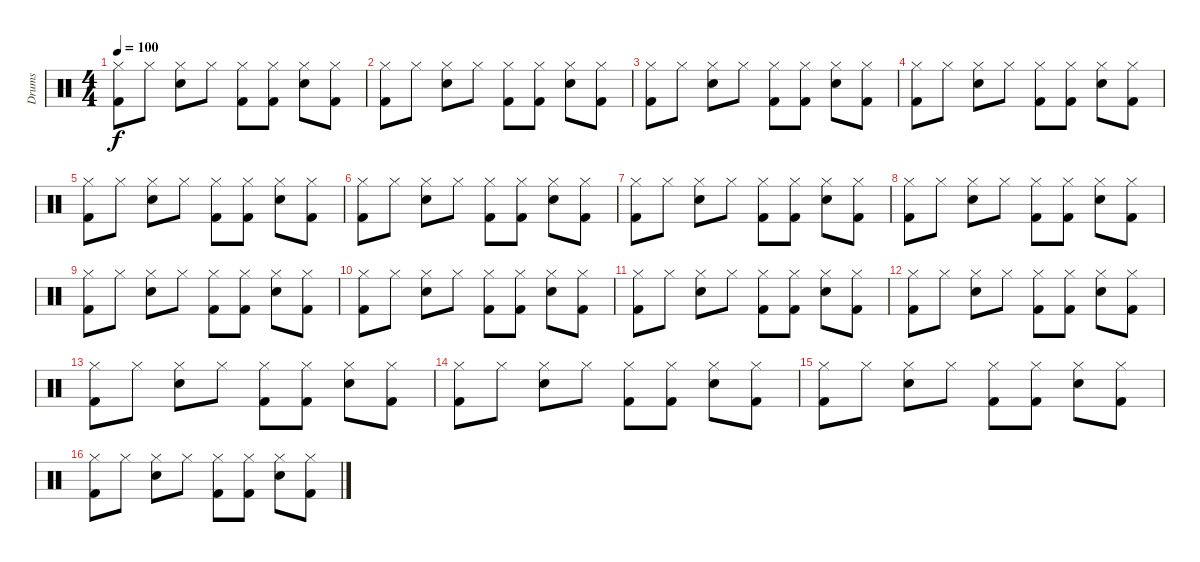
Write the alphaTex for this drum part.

\track ("Drums" "Drums") {instrument percussion}
\staff {score}
\articulation defaults
\ts (4 4)
\tempo 100
\clef neutral
\ks c
("Hi-Hat (closed)" "Kick (hit) 2").8{dy f} "Hi-Hat (closed)".8 ("Hi-Hat (closed)" "Snare (hit) 2").8 "Hi-Hat (closed)".8 ("Hi-Hat (closed)" "Kick (hit) 2").8 ("Hi-Hat (closed)" "Kick (hit) 2").8 ("Hi-Hat (closed)" "Snare (hit) 2").8 ("Hi-Hat (closed)" "Kick (hit) 2").8 |
("Hi-Hat (closed)" "Kick (hit) 2").8 "Hi-Hat (closed)".8 ("Hi-Hat (closed)" "Snare (hit) 2").8 "Hi-Hat (closed)".8 ("Hi-Hat (closed)" "Kick (hit) 2").8 ("Hi-Hat (closed)" "Kick (hit) 2").8 ("Hi-Hat (closed)" "Snare (hit) 2").8 ("Hi-Hat (closed)" "Kick (hit) 2").8 |
("Hi-Hat (closed)" "Kick (hit) 2").8 "Hi-Hat (closed)".8 ("Hi-Hat (closed)" "Snare (hit) 2").8 "Hi-Hat (closed)".8 ("Hi-Hat (closed)" "Kick (hit) 2").8 ("Hi-Hat (closed)" "Kick (hit) 2").8 ("Hi-Hat (closed)" "Snare (hit) 2").8 ("Hi-Hat (closed)" "Kick (hit) 2").8 |
("Hi-Hat (closed)" "Kick (hit) 2").8 "Hi-Hat (closed)".8 ("Hi-Hat (closed)" "Snare (hit) 2").8 "Hi-Hat (closed)".8 ("Hi-Hat (closed)" "Kick (hit) 2").8 ("Hi-Hat (closed)" "Kick (hit) 2").8 ("Hi-Hat (closed)" "Snare (hit) 2").8 ("Hi-Hat (closed)" "Kick (hit) 2").8 |
("Hi-Hat (closed)" "Kick (hit) 2").8 "Hi-Hat (closed)".8 ("Hi-Hat (closed)" "Snare (hit) 2").8 "Hi-Hat (closed)".8 ("Hi-Hat (closed)" "Kick (hit) 2").8 ("Hi-Hat (closed)" "Kick (hit) 2").8 ("Hi-Hat (closed)" "Snare (hit) 2").8 ("Hi-Hat (closed)" "Kick (hit) 2").8 |
("Hi-Hat (closed)" "Kick (hit) 2").8 "Hi-Hat (closed)".8 ("Hi-Hat (closed)" "Snare (hit) 2").8 "Hi-Hat (closed)".8 ("Hi-Hat (closed)" "Kick (hit) 2").8 ("Hi-Hat (closed)" "Kick (hit) 2").8 ("Hi-Hat (closed)" "Snare (hit) 2").8 ("Hi-Hat (closed)" "Kick (hit) 2").8 |
("Hi-Hat (closed)" "Kick (hit) 2").8 "Hi-Hat (closed)".8 ("Hi-Hat (closed)" "Snare (hit) 2").8 "Hi-Hat (closed)".8 ("Hi-Hat (closed)" "Kick (hit) 2").8 ("Hi-Hat (closed)" "Kick (hit) 2").8 ("Hi-Hat (closed)" "Snare (hit) 2").8 ("Hi-Hat (closed)" "Kick (hit) 2").8 |
("Hi-Hat (closed)" "Kick (hit) 2").8 "Hi-Hat (closed)".8 ("Hi-Hat (closed)" "Snare (hit) 2").8 "Hi-Hat (closed)".8 ("Hi-Hat (closed)" "Kick (hit) 2").8 ("Hi-Hat (closed)" "Kick (hit) 2").8 ("Hi-Hat (closed)" "Snare (hit) 2").8 ("Hi-Hat (closed)" "Kick (hit) 2").8 |
("Hi-Hat (closed)" "Kick (hit) 2").8 "Hi-Hat (closed)".8 ("Hi-Hat (closed)" "Snare (hit) 2").8 "Hi-Hat (closed)".8 ("Hi-Hat (closed)" "Kick (hit) 2").8 ("Hi-Hat (closed)" "Kick (hit) 2").8 ("Hi-Hat (closed)" "Snare (hit) 2").8 ("Hi-Hat (closed)" "Kick (hit) 2").8 |
("Hi-Hat (closed)" "Kick (hit) 2").8 "Hi-Hat (closed)".8 ("Hi-Hat (closed)" "Snare (hit) 2").8 "Hi-Hat (closed)".8 ("Hi-Hat (closed)" "Kick (hit) 2").8 ("Hi-Hat (closed)" "Kick (hit) 2").8 ("Hi-Hat (closed)" "Snare (hit) 2").8 ("Hi-Hat (closed)" "Kick (hit) 2").8 |
("Hi-Hat (closed)" "Kick (hit) 2").8 "Hi-Hat (closed)".8 ("Hi-Hat (closed)" "Snare (hit) 2").8 "Hi-Hat (closed)".8 ("Hi-Hat (closed)" "Kick (hit) 2").8 ("Hi-Hat (closed)" "Kick (hit) 2").8 ("Hi-Hat (closed)" "Snare (hit) 2").8 ("Hi-Hat (closed)" "Kick (hit) 2").8 |
("Hi-Hat (closed)" "Kick (hit) 2").8 "Hi-Hat (closed)".8 ("Hi-Hat (closed)" "Snare (hit) 2").8 "Hi-Hat (closed)".8 ("Hi-Hat (closed)" "Kick (hit) 2").8 ("Hi-Hat (closed)" "Kick (hit) 2").8 ("Hi-Hat (closed)" "Snare (hit) 2").8 ("Hi-Hat (closed)" "Kick (hit) 2").8 |
("Hi-Hat (closed)" "Kick (hit) 2").8 "Hi-Hat (closed)".8 ("Hi-Hat (closed)" "Snare (hit) 2").8 "Hi-Hat (closed)".8 ("Hi-Hat (closed)" "Kick (hit) 2").8 ("Hi-Hat (closed)" "Kick (hit) 2").8 ("Hi-Hat (closed)" "Snare (hit) 2").8 ("Hi-Hat (closed)" "Kick (hit) 2").8 |
("Hi-Hat (closed)" "Kick (hit) 2").8 "Hi-Hat (closed)".8 ("Hi-Hat (closed)" "Snare (hit) 2").8 "Hi-Hat (closed)".8 ("Hi-Hat (closed)" "Kick (hit) 2").8 ("Hi-Hat (closed)" "Kick (hit) 2").8 ("Hi-Hat (closed)" "Snare (hit) 2").8 ("Hi-Hat (closed)" "Kick (hit) 2").8 |
("Hi-Hat (closed)" "Kick (hit) 2").8 "Hi-Hat (closed)".8 ("Hi-Hat (closed)" "Snare (hit) 2").8 "Hi-Hat (closed)".8 ("Hi-Hat (closed)" "Kick (hit) 2").8 ("Hi-Hat (closed)" "Kick (hit) 2").8 ("Hi-Hat (closed)" "Snare (hit) 2").8 ("Hi-Hat (closed)" "Kick (hit) 2").8 |
("Hi-Hat (closed)" "Kick (hit) 2").8 "Hi-Hat (closed)".8 ("Hi-Hat (closed)" "Snare (hit) 2").8 "Hi-Hat (closed)".8 ("Hi-Hat (closed)" "Kick (hit) 2").8 ("Hi-Hat (closed)" "Kick (hit) 2").8 ("Hi-Hat (closed)" "Snare (hit) 2").8 ("Hi-Hat (closed)" "Kick (hit) 2").8
